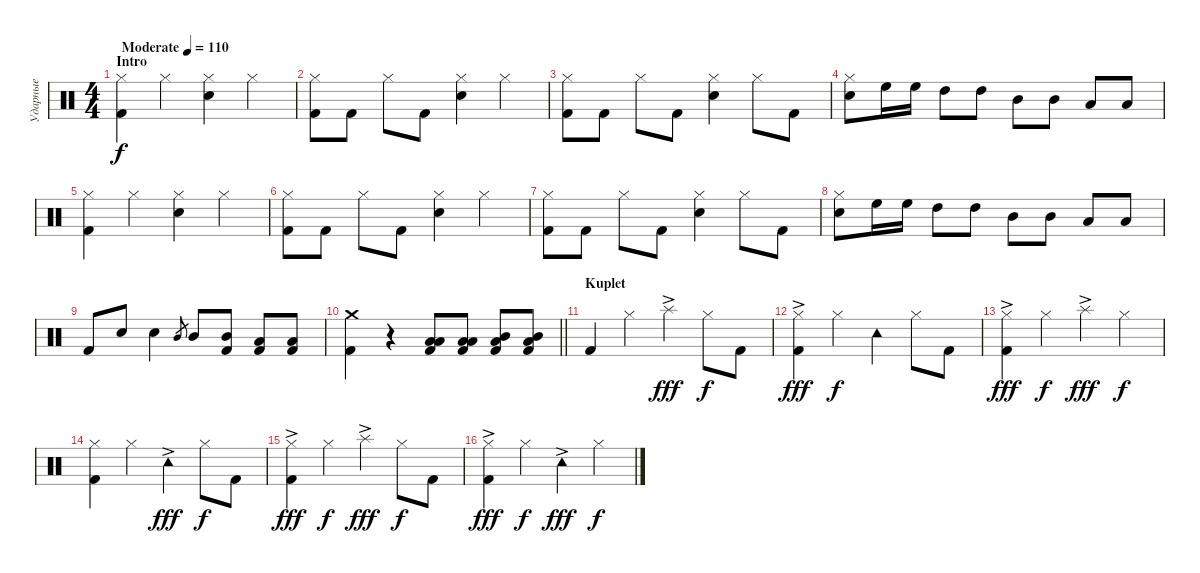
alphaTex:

\track ("Ударные" "Ударные") {instrument percussion}
\staff {score}
\articulation defaults
\ts (4 4)
\section ("" "Intro")
\tempo (110 "Moderate")
\clef neutral
\ks c
("Hi-Hat (closed)" "Kick (hit) 2").4{dy f} "Hi-Hat (closed)".4 ("Hi-Hat (closed)" "Snare (hit) 2").4 "Hi-Hat (closed)".4 |
("Hi-Hat (closed)" "Kick (hit) 2").8 "Kick (hit) 2".8 "Hi-Hat (closed)".8 "Kick (hit) 2".8 ("Hi-Hat (closed)" "Snare (hit) 2").4 "Hi-Hat (closed)".4 |
("Hi-Hat (closed)" "Kick (hit) 2").8 "Kick (hit) 2".8 "Hi-Hat (closed)".8 "Kick (hit) 2".8 ("Hi-Hat (closed)" "Snare (hit) 2").4 "Hi-Hat (closed)".8 "Kick (hit) 2".8 |
("Hi-Hat (closed)" "Snare (hit) 2").8 "High Floor Tom (hit)".16 "High Floor Tom (hit)".16 "High Tom (hit)".8 "High Tom (hit)".8 "Mid Tom (hit)".8 "Mid Tom (hit)".8 "Low Tom (hit)".8 "Low Tom (hit)".8 |
("Hi-Hat (closed)" "Kick (hit) 2").4 "Hi-Hat (closed)".4 ("Hi-Hat (closed)" "Snare (hit) 2").4 "Hi-Hat (closed)".4 |
("Hi-Hat (closed)" "Kick (hit) 2").8 "Kick (hit) 2".8 "Hi-Hat (closed)".8 "Kick (hit) 2".8 ("Hi-Hat (closed)" "Snare (hit) 2").4 "Hi-Hat (closed)".4 |
("Hi-Hat (closed)" "Kick (hit) 2").8 "Kick (hit) 2".8 "Hi-Hat (closed)".8 "Kick (hit) 2".8 ("Hi-Hat (closed)" "Snare (hit) 2").4 "Hi-Hat (closed)".8 "Kick (hit) 2".8 |
("Hi-Hat (closed)" "Snare (hit) 2").8 "High Floor Tom (hit)".16 "High Floor Tom (hit)".16 "High Tom (hit)".8 "High Tom (hit)".8 "Mid Tom (hit)".8 "Mid Tom (hit)".8 "Low Tom (hit)".8 "Low Tom (hit)".8 |
"Kick (hit) 2".8 "Snare (hit) 2".8 "Snare (hit) 2".4 "Mid Tom (hit)".8{gr} "Mid Tom (hit)".8 ("Mid Tom (hit)" "Kick (hit) 2").8 ("Low Tom (hit)" "Kick (hit) 2").8 ("Low Tom (hit)" "Kick (hit) 2").8 |
\barLineRight lightlight
("Crash medium (hit)" "Kick (hit) 2").4 r.4 ("Low Tom (hit)" "Low Tom (hit)" "Kick (hit) 2").8 ("Low Tom (hit)" "Low Tom (hit)" "Kick (hit) 2").8 ("Mid Tom (hit)" "Low Tom (hit)" "Kick (hit) 2").8 ("Mid Tom (hit)" "Low Tom (hit)" "Kick (hit) 2").8 |
\section ("" "Kuplet")
"Kick (hit) 2".4 "Hi-Hat (closed)".4 "Splash (hit)"{ac}.4{dy fff} "Hi-Hat (closed)".8{dy f} "Kick (hit) 2".8 |
("Hi-Hat (closed)"{ac} "Kick (hit) 2").4{dy fff} "Hi-Hat (closed)".4{dy f} "Tambourine (hit)".4 "Hi-Hat (closed)".8 "Kick (hit) 2".8 |
("Hi-Hat (closed)"{ac} "Kick (hit) 2").4{dy fff} "Hi-Hat (closed)".4{dy f} "Splash (hit)"{ac}.4{dy fff} "Hi-Hat (closed)".4{dy f} |
("Kick (hit) 2" "Hi-Hat (closed)").4 "Hi-Hat (closed)".4 "Tambourine (hit)"{ac}.4{dy fff} "Hi-Hat (closed)".8{dy f} "Kick (hit) 2".8 |
("Hi-Hat (closed)"{ac} "Kick (hit) 2").4{dy fff} "Hi-Hat (closed)".4{dy f} "Splash (hit)"{ac}.4{dy fff} "Hi-Hat (closed)".8{dy f} "Kick (hit) 2".8 |
("Hi-Hat (closed)"{ac} "Kick (hit) 2").4{dy fff} "Hi-Hat (closed)".4{dy f} "Tambourine (hit)"{ac}.4{dy fff} "Hi-Hat (closed)".4{dy f}
